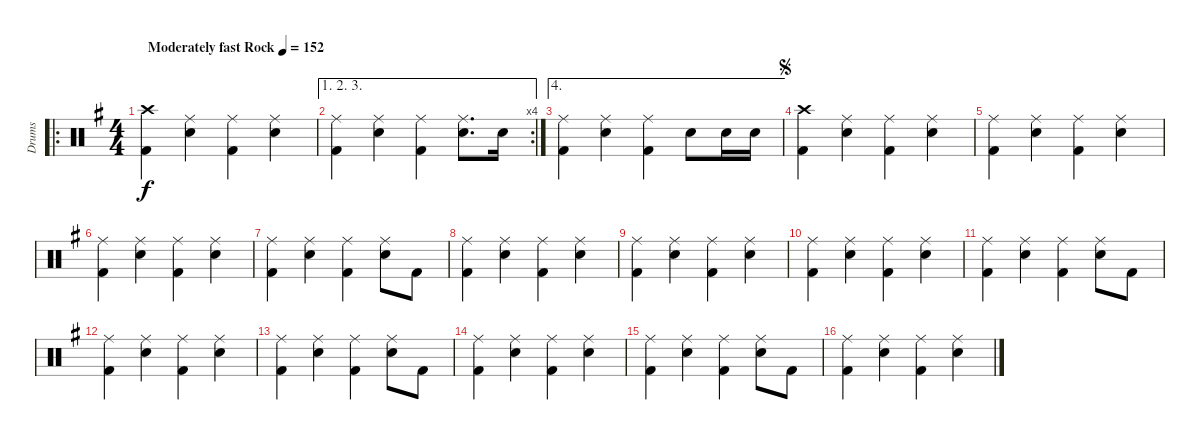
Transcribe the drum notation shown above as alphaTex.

\track ("Drums" "Drums") {instrument percussion}
\staff {score}
\articulation defaults
\ro
\ts (4 4)
\tempo (152 "Moderately fast Rock")
\clef neutral
\ks g
("Crash high (hit)" "Kick (hit) 2").4{dy f} ("Ride (middle)" "Snare (hit) 2").4 ("Ride (middle)" "Kick (hit) 2").4 ("Ride (middle)" "Snare (hit) 2").4 |
\ae (1 2 3)
\rc 4
("Ride (middle)" "Kick (hit) 2").4 ("Ride (middle)" "Snare (hit) 2").4 ("Ride (middle)" "Kick (hit) 2").4 ("Ride (middle)" "Snare (hit) 2").8{d} "Snare (hit) 2".16 |
\ae 4
("Ride (middle)" "Kick (hit) 2").4 ("Ride (middle)" "Snare (hit) 2").4 ("Ride (middle)" "Kick (hit) 2").4 "Snare (hit) 2".8 "Snare (hit) 2".16 "Snare (hit) 2".16 |
\jump segno
("Crash high (hit)" "Kick (hit) 2").4 ("Ride (middle)" "Snare (hit) 2").4 ("Ride (middle)" "Kick (hit) 2").4 ("Ride (middle)" "Snare (hit) 2").4 |
("Ride (middle)" "Kick (hit) 2").4 ("Ride (middle)" "Snare (hit) 2").4 ("Ride (middle)" "Kick (hit) 2").4 ("Ride (middle)" "Snare (hit) 2").4 |
("Ride (middle)" "Kick (hit) 2").4 ("Ride (middle)" "Snare (hit) 2").4 ("Ride (middle)" "Kick (hit) 2").4 ("Ride (middle)" "Snare (hit) 2").4 |
("Ride (middle)" "Kick (hit) 2").4 ("Ride (middle)" "Snare (hit) 2").4 ("Ride (middle)" "Kick (hit) 2").4 ("Ride (middle)" "Snare (hit) 2").8 "Kick (hit) 2".8 |
("Ride (middle)" "Kick (hit) 2").4 ("Ride (middle)" "Snare (hit) 2").4 ("Ride (middle)" "Kick (hit) 2").4 ("Ride (middle)" "Snare (hit) 2").4 |
("Ride (middle)" "Kick (hit) 2").4 ("Ride (middle)" "Snare (hit) 2").4 ("Ride (middle)" "Kick (hit) 2").4 ("Ride (middle)" "Snare (hit) 2").4 |
("Ride (middle)" "Kick (hit) 2").4 ("Ride (middle)" "Snare (hit) 2").4 ("Ride (middle)" "Kick (hit) 2").4 ("Ride (middle)" "Snare (hit) 2").4 |
("Ride (middle)" "Kick (hit) 2").4 ("Ride (middle)" "Snare (hit) 2").4 ("Ride (middle)" "Kick (hit) 2").4 ("Ride (middle)" "Snare (hit) 2").8 "Kick (hit) 2".8 |
("Ride (middle)" "Kick (hit) 2").4 ("Ride (middle)" "Snare (hit) 2").4 ("Ride (middle)" "Kick (hit) 2").4 ("Ride (middle)" "Snare (hit) 2").4 |
("Ride (middle)" "Kick (hit) 2").4 ("Ride (middle)" "Snare (hit) 2").4 ("Ride (middle)" "Kick (hit) 2").4 ("Ride (middle)" "Snare (hit) 2").8 "Kick (hit) 2".8 |
("Ride (middle)" "Kick (hit) 2").4 ("Ride (middle)" "Snare (hit) 2").4 ("Ride (middle)" "Kick (hit) 2").4 ("Ride (middle)" "Snare (hit) 2").4 |
("Ride (middle)" "Kick (hit) 2").4 ("Ride (middle)" "Snare (hit) 2").4 ("Ride (middle)" "Kick (hit) 2").4 ("Ride (middle)" "Snare (hit) 2").8 "Kick (hit) 2".8 |
("Ride (middle)" "Kick (hit) 2").4 ("Ride (middle)" "Snare (hit) 2").4 ("Ride (middle)" "Kick (hit) 2").4 ("Ride (middle)" "Snare (hit) 2").4
